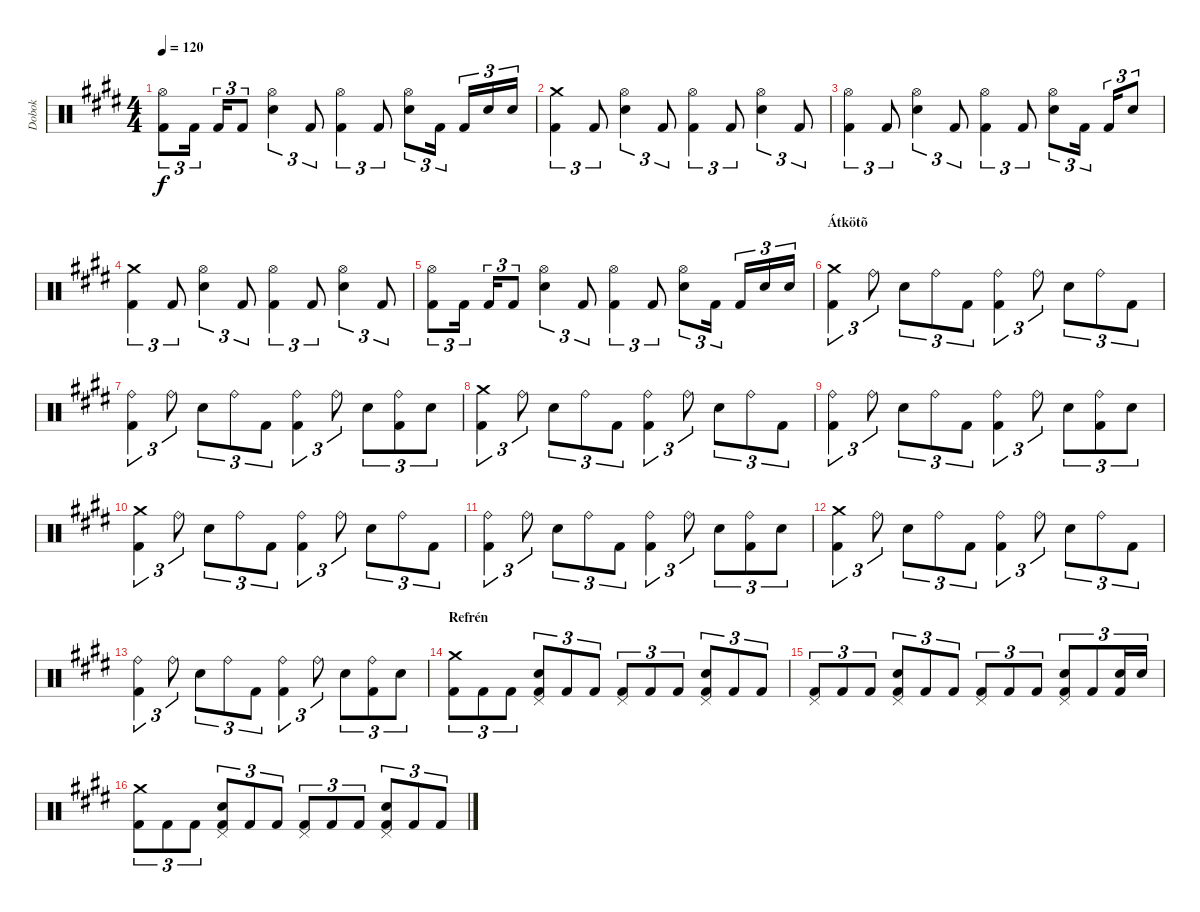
\track ("Dobok" "Dobok") {instrument percussion}
\staff {score}
\articulation defaults
\ts (4 4)
\tempo 120
\clef neutral
\ks c#minor
("Hi-Hat (open)" "Kick (hit) 2").8{tu (3 2) dy f} "Kick (hit) 2".16{tu (3 2)} "Kick (hit) 2".16{tu (3 2)} "Kick (hit) 2".8{tu (3 2)} ("Hi-Hat (open)" "Snare (hit) 2").4{tu (3 2)} "Kick (hit) 2".8{tu (3 2)} ("Hi-Hat (open)" "Kick (hit) 2").4{tu (3 2)} "Kick (hit) 2".8{tu (3 2)} ("Hi-Hat (open)" "Snare (hit) 2").8{tu (3 2)} "Kick (hit) 2".16{tu (3 2)} "Kick (hit) 2".16{tu (3 2)} "Snare (hit) 2".16{tu (3 2)} "Snare (hit) 2".16{tu (3 2)} |
("Crash medium (hit)" "Kick (hit) 2").4{tu (3 2)} "Kick (hit) 2".8{tu (3 2)} ("Hi-Hat (open)" "Snare (hit) 2").4{tu (3 2)} "Kick (hit) 2".8{tu (3 2)} ("Hi-Hat (open)" "Kick (hit) 2").4{tu (3 2)} "Kick (hit) 2".8{tu (3 2)} ("Hi-Hat (open)" "Snare (hit) 2").4{tu (3 2)} "Kick (hit) 2".8{tu (3 2)} |
("Hi-Hat (open)" "Kick (hit) 2").4{tu (3 2)} "Kick (hit) 2".8{tu (3 2)} ("Hi-Hat (open)" "Snare (hit) 2").4{tu (3 2)} "Kick (hit) 2".8{tu (3 2)} ("Hi-Hat (open)" "Kick (hit) 2").4{tu (3 2)} "Kick (hit) 2".8{tu (3 2)} ("Hi-Hat (open)" "Snare (hit) 2").8{tu (3 2)} "Kick (hit) 2".16{tu (3 2)} "Kick (hit) 2".16{tu (3 2)} "Snare (hit) 2".8{tu (3 2)} |
("Crash medium (hit)" "Kick (hit) 2").4{tu (3 2)} "Kick (hit) 2".8{tu (3 2)} ("Hi-Hat (open)" "Snare (hit) 2").4{tu (3 2)} "Kick (hit) 2".8{tu (3 2)} ("Hi-Hat (open)" "Kick (hit) 2").4{tu (3 2)} "Kick (hit) 2".8{tu (3 2)} ("Hi-Hat (open)" "Snare (hit) 2").4{tu (3 2)} "Kick (hit) 2".8{tu (3 2)} |
("Hi-Hat (open)" "Kick (hit) 2").8{tu (3 2)} "Kick (hit) 2".16{tu (3 2)} "Kick (hit) 2".16{tu (3 2)} "Kick (hit) 2".8{tu (3 2)} ("Hi-Hat (open)" "Snare (hit) 2").4{tu (3 2)} "Kick (hit) 2".8{tu (3 2)} ("Hi-Hat (open)" "Kick (hit) 2").4{tu (3 2)} "Kick (hit) 2".8{tu (3 2)} ("Hi-Hat (open)" "Snare (hit) 2").8{tu (3 2)} "Kick (hit) 2".16{tu (3 2)} "Kick (hit) 2".16{tu (3 2)} "Snare (hit) 2".16{tu (3 2)} "Snare (hit) 2".16{tu (3 2)} |
\section ("" "Átkötõ")
("Crash medium (hit)" "Kick (hit) 2").4{tu (3 2)} "Ride (bell)".8{tu (3 2)} "Snare (hit) 2".8{tu (3 2)} "Ride (bell)".8{tu (3 2)} "Kick (hit) 2".8{tu (3 2)} ("Ride (bell)" "Kick (hit) 2").4{tu (3 2)} "Ride (bell)".8{tu (3 2)} "Snare (hit) 2".8{tu (3 2)} "Ride (bell)".8{tu (3 2)} "Kick (hit) 2".8{tu (3 2)} |
("Ride (bell)" "Kick (hit) 2").4{tu (3 2)} "Ride (bell)".8{tu (3 2)} "Snare (hit) 2".8{tu (3 2)} "Ride (bell)".8{tu (3 2)} "Kick (hit) 2".8{tu (3 2)} ("Ride (bell)" "Kick (hit) 2").4{tu (3 2)} "Ride (bell)".8{tu (3 2)} "Snare (hit) 2".8{tu (3 2)} ("Ride (bell)" "Kick (hit) 2").8{tu (3 2)} "Snare (hit) 2".8{tu (3 2)} |
("Crash medium (hit)" "Kick (hit) 2").4{tu (3 2)} "Ride (bell)".8{tu (3 2)} "Snare (hit) 2".8{tu (3 2)} "Ride (bell)".8{tu (3 2)} "Kick (hit) 2".8{tu (3 2)} ("Ride (bell)" "Kick (hit) 2").4{tu (3 2)} "Ride (bell)".8{tu (3 2)} "Snare (hit) 2".8{tu (3 2)} "Ride (bell)".8{tu (3 2)} "Kick (hit) 2".8{tu (3 2)} |
("Ride (bell)" "Kick (hit) 2").4{tu (3 2)} "Ride (bell)".8{tu (3 2)} "Snare (hit) 2".8{tu (3 2)} "Ride (bell)".8{tu (3 2)} "Kick (hit) 2".8{tu (3 2)} ("Ride (bell)" "Kick (hit) 2").4{tu (3 2)} "Ride (bell)".8{tu (3 2)} "Snare (hit) 2".8{tu (3 2)} ("Ride (bell)" "Kick (hit) 2").8{tu (3 2)} "Snare (hit) 2".8{tu (3 2)} |
("Crash medium (hit)" "Kick (hit) 2").4{tu (3 2)} "Ride (bell)".8{tu (3 2)} "Snare (hit) 2".8{tu (3 2)} "Ride (bell)".8{tu (3 2)} "Kick (hit) 2".8{tu (3 2)} ("Ride (bell)" "Kick (hit) 2").4{tu (3 2)} "Ride (bell)".8{tu (3 2)} "Snare (hit) 2".8{tu (3 2)} "Ride (bell)".8{tu (3 2)} "Kick (hit) 2".8{tu (3 2)} |
("Ride (bell)" "Kick (hit) 2").4{tu (3 2)} "Ride (bell)".8{tu (3 2)} "Snare (hit) 2".8{tu (3 2)} "Ride (bell)".8{tu (3 2)} "Kick (hit) 2".8{tu (3 2)} ("Ride (bell)" "Kick (hit) 2").4{tu (3 2)} "Ride (bell)".8{tu (3 2)} "Snare (hit) 2".8{tu (3 2)} ("Ride (bell)" "Kick (hit) 2").8{tu (3 2)} "Snare (hit) 2".8{tu (3 2)} |
("Crash medium (hit)" "Kick (hit) 2").4{tu (3 2)} "Ride (bell)".8{tu (3 2)} "Snare (hit) 2".8{tu (3 2)} "Ride (bell)".8{tu (3 2)} "Kick (hit) 2".8{tu (3 2)} ("Ride (bell)" "Kick (hit) 2").4{tu (3 2)} "Ride (bell)".8{tu (3 2)} "Snare (hit) 2".8{tu (3 2)} "Ride (bell)".8{tu (3 2)} "Kick (hit) 2".8{tu (3 2)} |
("Ride (bell)" "Kick (hit) 2").4{tu (3 2)} "Ride (bell)".8{tu (3 2)} "Snare (hit) 2".8{tu (3 2)} "Ride (bell)".8{tu (3 2)} "Kick (hit) 2".8{tu (3 2)} ("Ride (bell)" "Kick (hit) 2").4{tu (3 2)} "Ride (bell)".8{tu (3 2)} "Snare (hit) 2".8{tu (3 2)} ("Ride (bell)" "Kick (hit) 2").8{tu (3 2)} "Snare (hit) 2".8{tu (3 2)} |
\section ("" "Refrén")
("Crash medium (hit)" "Kick (hit) 2").8{tu (3 2)} "Kick (hit) 2".8{tu (3 2)} "Kick (hit) 2".8{tu (3 2)} ("Pedal Hi-Hat (hit)" "Snare (hit) 2" "Kick (hit) 2").8{tu (3 2)} "Kick (hit) 2".8{tu (3 2)} "Kick (hit) 2".8{tu (3 2)} ("Pedal Hi-Hat (hit)" "Kick (hit) 2").8{tu (3 2)} "Kick (hit) 2".8{tu (3 2)} "Kick (hit) 2".8{tu (3 2)} ("Pedal Hi-Hat (hit)" "Snare (hit) 2" "Kick (hit) 2").8{tu (3 2)} "Kick (hit) 2".8{tu (3 2)} "Kick (hit) 2".8{tu (3 2)} |
("Pedal Hi-Hat (hit)" "Kick (hit) 2").8{tu (3 2)} "Kick (hit) 2".8{tu (3 2)} "Kick (hit) 2".8{tu (3 2)} ("Pedal Hi-Hat (hit)" "Snare (hit) 2" "Kick (hit) 2").8{tu (3 2)} "Kick (hit) 2".8{tu (3 2)} "Kick (hit) 2".8{tu (3 2)} ("Pedal Hi-Hat (hit)" "Kick (hit) 2").8{tu (3 2)} "Kick (hit) 2".8{tu (3 2)} "Kick (hit) 2".8{tu (3 2)} ("Pedal Hi-Hat (hit)" "Snare (hit) 2" "Kick (hit) 2").8{tu (3 2)} "Kick (hit) 2".8{tu (3 2)} ("Snare (hit) 2" "Kick (hit) 2").16{tu (3 2)} "Snare (hit) 2".16{tu (3 2)} |
("Crash medium (hit)" "Kick (hit) 2").8{tu (3 2)} "Kick (hit) 2".8{tu (3 2)} "Kick (hit) 2".8{tu (3 2)} ("Pedal Hi-Hat (hit)" "Snare (hit) 2" "Kick (hit) 2").8{tu (3 2)} "Kick (hit) 2".8{tu (3 2)} "Kick (hit) 2".8{tu (3 2)} ("Pedal Hi-Hat (hit)" "Kick (hit) 2").8{tu (3 2)} "Kick (hit) 2".8{tu (3 2)} "Kick (hit) 2".8{tu (3 2)} ("Pedal Hi-Hat (hit)" "Snare (hit) 2" "Kick (hit) 2").8{tu (3 2)} "Kick (hit) 2".8{tu (3 2)} "Kick (hit) 2".8{tu (3 2)}
